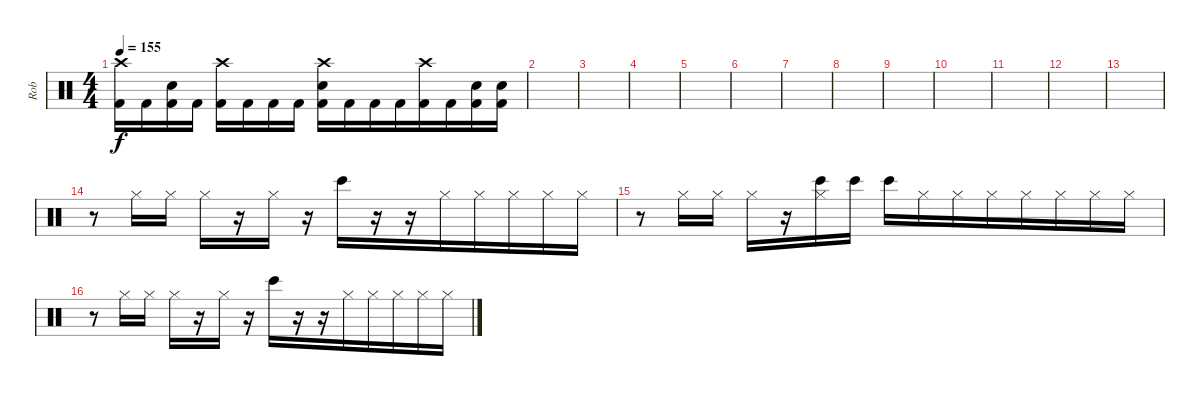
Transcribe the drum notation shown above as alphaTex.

\track ("Rob" "Rob") {instrument percussion}
\staff {score}
\articulation defaults
\ts (4 4)
\tempo 155
\clef neutral
\ks c
("Kick (hit) 2" "Crash high (hit)").16{dy f beam merge} "Kick (hit) 2".16 ("Kick (hit) 2" "Electric Snare (hit)").16 "Kick (hit) 2".16 ("Kick (hit) 2" "Crash high (hit)").16 "Kick (hit) 2".16 "Kick (hit) 2".16 "Kick (hit) 2".16 ("Kick (hit) 2" "Crash high (hit)" "Electric Snare (hit)").16 "Kick (hit) 2".16 "Kick (hit) 2".16 "Kick (hit) 2".16{beam merge} ("Kick (hit) 2" "Crash high (hit)").16 "Kick (hit) 2".16 ("Kick (hit) 2" "Electric Snare (hit)").16{beam merge} ("Kick (hit) 2" "Electric Snare (hit)").16 |
|
|
|
|
|
|
|
|
|
|
|
|
r.8{beam merge} "Hi-Hat (closed)".16 "Hi-Hat (closed)".16 "Hi-Hat (closed)".16{beam merge} r.16 "Hi-Hat (closed)".16 r.16 "Bongo High (hit)".16 r.16{beam merge} r.16 "Hi-Hat (closed)".16{beam merge} "Hi-Hat (closed)".16{beam merge} "Hi-Hat (closed)".16{beam merge} "Hi-Hat (closed)".16 "Hi-Hat (closed)".16 |
r.8{beam merge} "Hi-Hat (closed)".16 "Hi-Hat (closed)".16 "Hi-Hat (closed)".16{beam merge} r.16 ("Hi-Hat (closed)" "Bongo High (hit)").16 "Bongo High (hit)".16 "Bongo High (hit)".16 "Hi-Hat (closed)".16{beam merge} "Hi-Hat (closed)".16 "Hi-Hat (closed)".16{beam merge} "Hi-Hat (closed)".16{beam merge} "Hi-Hat (closed)".16{beam merge} "Hi-Hat (closed)".16 "Hi-Hat (closed)".16 |
r.8{beam merge} "Hi-Hat (closed)".16 "Hi-Hat (closed)".16 "Hi-Hat (closed)".16{beam merge} r.16 "Hi-Hat (closed)".16 r.16 "Bongo High (hit)".16 r.16{beam merge} r.16 "Hi-Hat (closed)".16{beam merge} "Hi-Hat (closed)".16{beam merge} "Hi-Hat (closed)".16{beam merge} "Hi-Hat (closed)".16 "Hi-Hat (closed)".16
